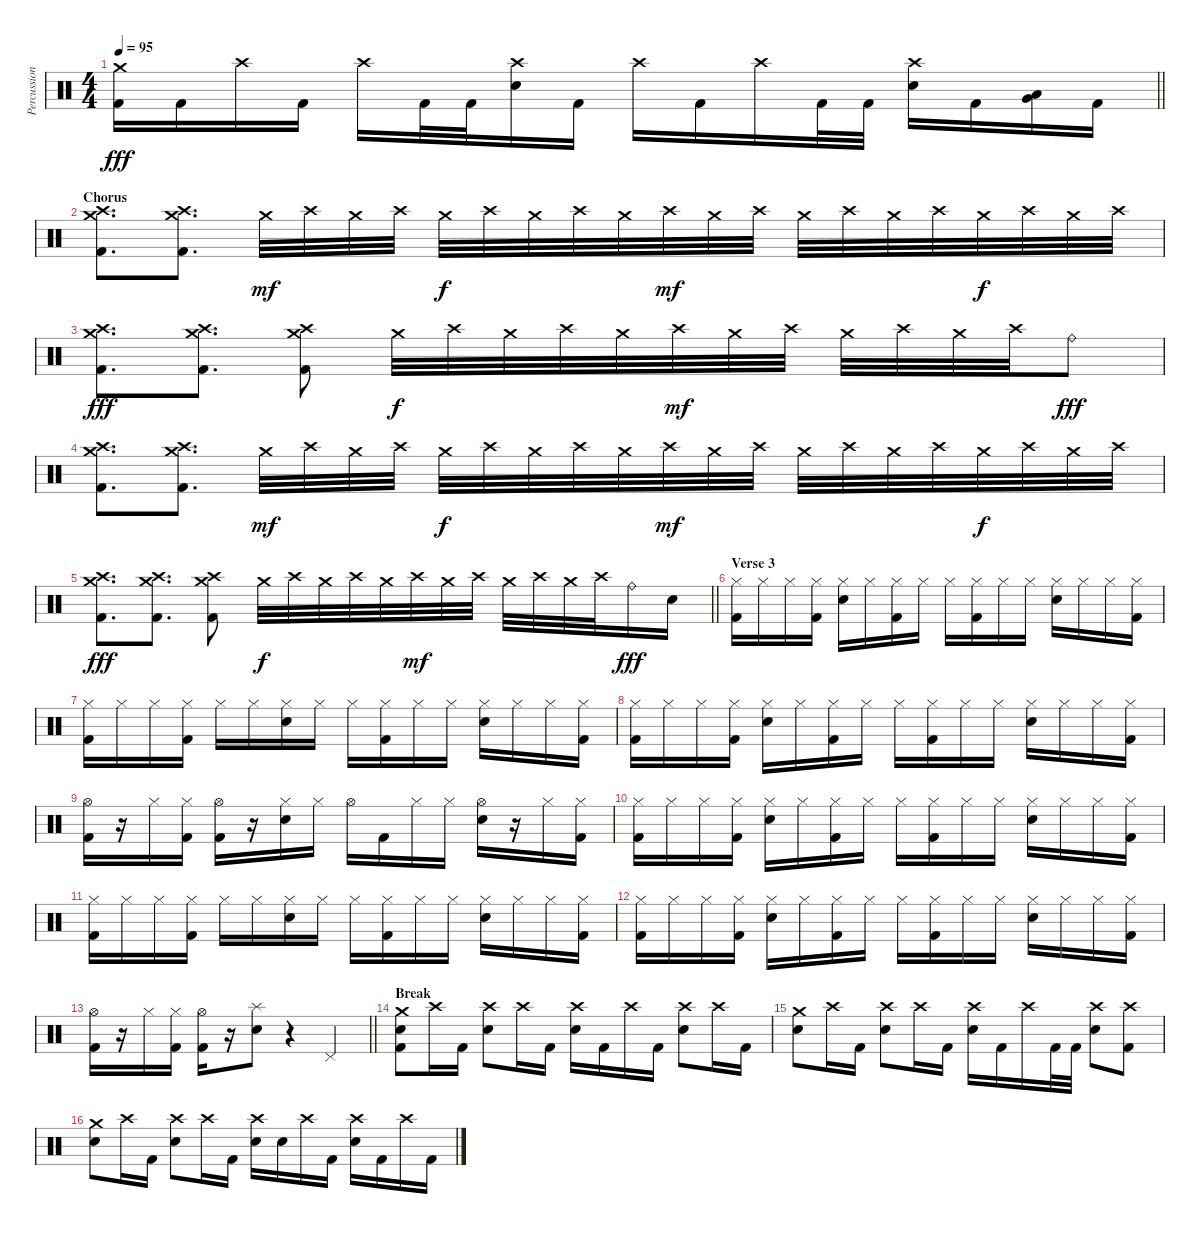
\track ("Percussion" "Percussion") {instrument percussion}
\staff {score}
\articulation defaults
\ts (4 4)
\tempo 95
\clef neutral
\barLineRight lightlight
\ks c
("Crash medium (hit)" "Kick (hit) 2").16{dy fff} "Kick (hit) 2".16 "Crash high (hit)".16 "Kick (hit) 2".16 "Crash high (hit)".16 "Kick (hit) 2".32 "Kick (hit) 2".32 ("Crash high (hit)" "Snare (hit) 2").16 "Kick (hit) 2".16 "Crash high (hit)".16 "Kick (hit) 2".16 "Crash high (hit)".16 "Kick (hit) 2".32 "Kick (hit) 2".32 ("Crash high (hit)" "Snare (hit) 2").16 "Kick (hit) 2".16 ("Low Tom (hit)" "Very Low Tom (hit)").16 "Kick (hit) 2".16 |
\section ("" "Chorus")
("Crash medium (hit)" "Crash high (hit)" "Kick (hit) 2").8{d} ("Crash medium (hit)" "Crash high (hit)" "Kick (hit) 2").8{d} "Crash medium (hit)".32{dy mf} "Crash high (hit)".32 "Crash medium (hit)".32 "Crash high (hit)".32 "Crash medium (hit)".32{dy f} "Crash high (hit)".32 "Crash medium (hit)".32 "Crash high (hit)".32 "Crash medium (hit)".32 "Crash high (hit)".32{dy mf} "Crash medium (hit)".32 "Crash high (hit)".32 "Crash medium (hit)".32 "Crash high (hit)".32 "Crash medium (hit)".32 "Crash high (hit)".32 "Crash medium (hit)".32{dy f} "Crash high (hit)".32 "Crash medium (hit)".32 "Crash high (hit)".32 |
("Crash medium (hit)" "Crash high (hit)" "Kick (hit) 2").8{d dy fff} ("Crash medium (hit)" "Crash high (hit)" "Kick (hit) 2").8{d} ("Crash medium (hit)" "Crash high (hit)" "Kick (hit) 2").8 "Crash medium (hit)".32{dy f} "Crash high (hit)".32 "Crash medium (hit)".32 "Crash high (hit)".32 "Crash medium (hit)".32 "Crash high (hit)".32{dy mf} "Crash medium (hit)".32 "Crash high (hit)".32 "Crash medium (hit)".32 "Crash high (hit)".32 "Crash medium (hit)".32 "Crash high (hit)".32 "Ride (bell)".8{dy fff} |
("Crash medium (hit)" "Crash high (hit)" "Kick (hit) 2").8{d} ("Crash medium (hit)" "Crash high (hit)" "Kick (hit) 2").8{d} "Crash medium (hit)".32{dy mf} "Crash high (hit)".32 "Crash medium (hit)".32 "Crash high (hit)".32 "Crash medium (hit)".32{dy f} "Crash high (hit)".32 "Crash medium (hit)".32 "Crash high (hit)".32 "Crash medium (hit)".32 "Crash high (hit)".32{dy mf} "Crash medium (hit)".32 "Crash high (hit)".32 "Crash medium (hit)".32 "Crash high (hit)".32 "Crash medium (hit)".32 "Crash high (hit)".32 "Crash medium (hit)".32{dy f} "Crash high (hit)".32 "Crash medium (hit)".32 "Crash high (hit)".32 |
\barLineRight lightlight
("Crash medium (hit)" "Crash high (hit)" "Kick (hit) 2").8{d dy fff} ("Crash medium (hit)" "Crash high (hit)" "Kick (hit) 2").8{d} ("Crash medium (hit)" "Crash high (hit)" "Kick (hit) 2").8 "Crash medium (hit)".32{dy f} "Crash high (hit)".32 "Crash medium (hit)".32 "Crash high (hit)".32 "Crash medium (hit)".32 "Crash high (hit)".32{dy mf} "Crash medium (hit)".32 "Crash high (hit)".32 "Crash medium (hit)".32 "Crash high (hit)".32 "Crash medium (hit)".32 "Crash high (hit)".32 "Ride (bell)".16{dy fff} "Snare (hit) 2".16 |
\section ("" "Verse 3")
("Hi-Hat (closed)" "Kick (hit) 2").16 "Hi-Hat (closed)".16 "Hi-Hat (closed)".16 ("Hi-Hat (closed)" "Kick (hit) 2").16 ("Hi-Hat (closed)" "Snare (hit) 2").16 "Hi-Hat (closed)".16 ("Hi-Hat (closed)" "Kick (hit) 2").16 "Hi-Hat (closed)".16 "Hi-Hat (closed)".16 ("Hi-Hat (closed)" "Kick (hit) 2").16 "Hi-Hat (closed)".16 "Hi-Hat (closed)".16 ("Hi-Hat (closed)" "Snare (hit) 2").16 "Hi-Hat (closed)".16 "Hi-Hat (closed)".16 ("Hi-Hat (closed)" "Kick (hit) 2").16 |
("Hi-Hat (closed)" "Kick (hit) 2").16 "Hi-Hat (closed)".16 "Hi-Hat (closed)".16 ("Hi-Hat (closed)" "Kick (hit) 2").16 "Hi-Hat (closed)".16 "Hi-Hat (closed)".16 ("Hi-Hat (closed)" "Snare (hit) 2").16 "Hi-Hat (closed)".16 "Hi-Hat (closed)".16 ("Hi-Hat (closed)" "Kick (hit) 2").16 "Hi-Hat (closed)".16 "Hi-Hat (closed)".16 ("Hi-Hat (closed)" "Snare (hit) 2").16 "Hi-Hat (closed)".16 "Hi-Hat (closed)".16 ("Hi-Hat (closed)" "Kick (hit) 2").16 |
("Hi-Hat (closed)" "Kick (hit) 2").16 "Hi-Hat (closed)".16 "Hi-Hat (closed)".16 ("Hi-Hat (closed)" "Kick (hit) 2").16 ("Hi-Hat (closed)" "Snare (hit) 2").16 "Hi-Hat (closed)".16 ("Hi-Hat (closed)" "Kick (hit) 2").16 "Hi-Hat (closed)".16 "Hi-Hat (closed)".16 ("Hi-Hat (closed)" "Kick (hit) 2").16 "Hi-Hat (closed)".16 "Hi-Hat (closed)".16 ("Hi-Hat (closed)" "Snare (hit) 2").16 "Hi-Hat (closed)".16 "Hi-Hat (closed)".16 ("Hi-Hat (closed)" "Kick (hit) 2").16 |
("Hi-Hat (open)" "Kick (hit) 2").16 r.16 "Hi-Hat (closed)".16 ("Hi-Hat (closed)" "Kick (hit) 2").16 ("Hi-Hat (open)" "Kick (hit) 2").16 r.16 ("Hi-Hat (closed)" "Snare (hit) 2").16 "Hi-Hat (closed)".16 "Hi-Hat (open)".16 "Kick (hit) 2".16 "Hi-Hat (closed)".16 "Hi-Hat (closed)".16 ("Hi-Hat (open)" "Snare (hit) 2").16 r.16 "Hi-Hat (closed)".16 ("Hi-Hat (closed)" "Kick (hit) 2").16 |
("Hi-Hat (closed)" "Kick (hit) 2").16 "Hi-Hat (closed)".16 "Hi-Hat (closed)".16 ("Hi-Hat (closed)" "Kick (hit) 2").16 ("Hi-Hat (closed)" "Snare (hit) 2").16 "Hi-Hat (closed)".16 ("Hi-Hat (closed)" "Kick (hit) 2").16 "Hi-Hat (closed)".16 "Hi-Hat (closed)".16 ("Hi-Hat (closed)" "Kick (hit) 2").16 "Hi-Hat (closed)".16 "Hi-Hat (closed)".16 ("Hi-Hat (closed)" "Snare (hit) 2").16 "Hi-Hat (closed)".16 "Hi-Hat (closed)".16 ("Hi-Hat (closed)" "Kick (hit) 2").16 |
("Hi-Hat (closed)" "Kick (hit) 2").16 "Hi-Hat (closed)".16 "Hi-Hat (closed)".16 ("Hi-Hat (closed)" "Kick (hit) 2").16 "Hi-Hat (closed)".16 "Hi-Hat (closed)".16 ("Hi-Hat (closed)" "Snare (hit) 2").16 "Hi-Hat (closed)".16 "Hi-Hat (closed)".16 ("Hi-Hat (closed)" "Kick (hit) 2").16 "Hi-Hat (closed)".16 "Hi-Hat (closed)".16 ("Hi-Hat (closed)" "Snare (hit) 2").16 "Hi-Hat (closed)".16 "Hi-Hat (closed)".16 ("Hi-Hat (closed)" "Kick (hit) 2").16 |
("Hi-Hat (closed)" "Kick (hit) 2").16 "Hi-Hat (closed)".16 "Hi-Hat (closed)".16 ("Hi-Hat (closed)" "Kick (hit) 2").16 ("Hi-Hat (closed)" "Snare (hit) 2").16 "Hi-Hat (closed)".16 ("Hi-Hat (closed)" "Kick (hit) 2").16 "Hi-Hat (closed)".16 "Hi-Hat (closed)".16 ("Hi-Hat (closed)" "Kick (hit) 2").16 "Hi-Hat (closed)".16 "Hi-Hat (closed)".16 ("Hi-Hat (closed)" "Snare (hit) 2").16 "Hi-Hat (closed)".16 "Hi-Hat (closed)".16 ("Hi-Hat (closed)" "Kick (hit) 2").16 |
\barLineRight lightlight
("Hi-Hat (open)" "Kick (hit) 2").16 r.16 "Hi-Hat (closed)".16 ("Hi-Hat (closed)" "Kick (hit) 2").16 ("Hi-Hat (open)" "Kick (hit) 2").16 r.16 ("Splash (hit)" "Snare (hit) 2").8 r.4 "Pedal Hi-Hat (hit)".4 |
\section ("" "Break")
("Crash medium (hit)" "Snare (hit) 2" "Kick (hit) 2").8 "Crash high (hit)".16 "Kick (hit) 2".16 ("Crash high (hit)" "Snare (hit) 2").8 "Crash high (hit)".16 "Kick (hit) 2".16 ("Crash high (hit)" "Snare (hit) 2").16 "Kick (hit) 2".16 "Crash high (hit)".16 "Kick (hit) 2".16 ("Crash high (hit)" "Snare (hit) 2").8 "Crash high (hit)".16 "Kick (hit) 2".16 |
("Crash medium (hit)" "Snare (hit) 2").8 "Crash high (hit)".16 "Kick (hit) 2".16 ("Crash high (hit)" "Snare (hit) 2").8 "Crash high (hit)".16 "Kick (hit) 2".16 ("Crash high (hit)" "Snare (hit) 2").16 "Kick (hit) 2".16 "Crash high (hit)".16 "Kick (hit) 2".32 "Kick (hit) 2".32 ("Crash high (hit)" "Snare (hit) 2").8 ("Crash high (hit)" "Kick (hit) 2").8 |
("Crash medium (hit)" "Snare (hit) 2").8 "Crash high (hit)".16 "Kick (hit) 2".16 ("Crash high (hit)" "Snare (hit) 2").8 "Crash high (hit)".16 "Kick (hit) 2".16 ("Crash high (hit)" "Snare (hit) 2").16 "Snare (hit) 2".16 "Crash high (hit)".16 "Kick (hit) 2".16 ("Crash high (hit)" "Snare (hit) 2").16 "Kick (hit) 2".16 "Crash high (hit)".16 "Kick (hit) 2".16
